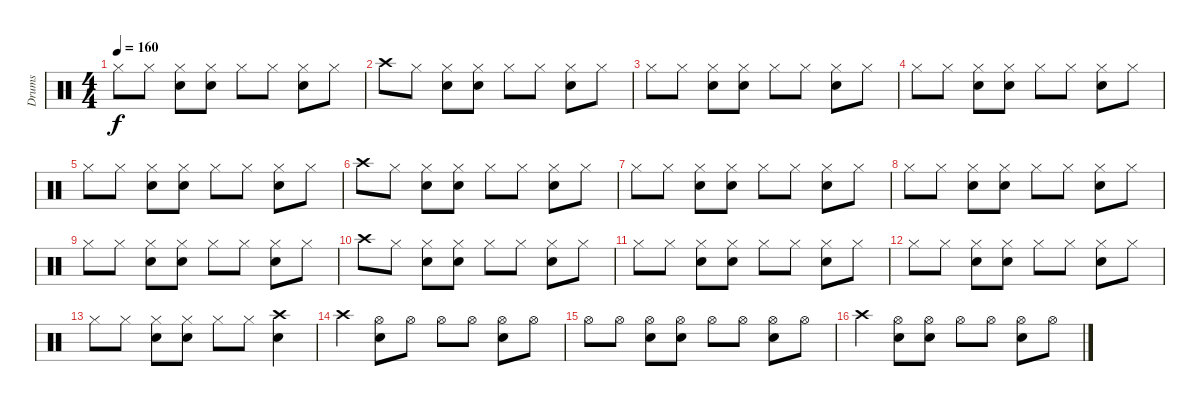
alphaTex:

\track ("Drums" "Drums") {instrument percussion}
\staff {score}
\articulation defaults
\ts (4 4)
\tempo 160
\clef neutral
\ks c "Hi-Hat (closed)".8{dy f} "Hi-Hat (closed)".8
("Hi-Hat (closed)" "Snare (hit) 2").8 ("Hi-Hat (closed)" "Snare (hit) 2").8 "Hi-Hat (closed)".8 "Hi-Hat (closed)".8 ("Hi-Hat (closed)" "Snare (hit) 2").8 "Hi-Hat (closed)".8 |
"Crash high (hit)".8 "Hi-Hat (closed)".8 ("Hi-Hat (closed)" "Snare (hit) 2").8 ("Hi-Hat (closed)" "Snare (hit) 2").8 "Hi-Hat (closed)".8 "Hi-Hat (closed)".8 ("Hi-Hat (closed)" "Snare (hit) 2").8 "Hi-Hat (closed)".8 |
"Hi-Hat (closed)".8 "Hi-Hat (closed)".8 ("Hi-Hat (closed)" "Snare (hit) 2").8 ("Hi-Hat (closed)" "Snare (hit) 2").8 "Hi-Hat (closed)".8 "Hi-Hat (closed)".8 ("Hi-Hat (closed)" "Snare (hit) 2").8 "Hi-Hat (closed)".8 |
"Hi-Hat (closed)".8 "Hi-Hat (closed)".8 ("Hi-Hat (closed)" "Snare (hit) 2").8 ("Hi-Hat (closed)" "Snare (hit) 2").8 "Hi-Hat (closed)".8 "Hi-Hat (closed)".8 ("Hi-Hat (closed)" "Snare (hit) 2").8 "Hi-Hat (closed)".8 |
"Hi-Hat (closed)".8 "Hi-Hat (closed)".8 ("Hi-Hat (closed)" "Snare (hit) 2").8 ("Hi-Hat (closed)" "Snare (hit) 2").8 "Hi-Hat (closed)".8 "Hi-Hat (closed)".8 ("Hi-Hat (closed)" "Snare (hit) 2").8 "Hi-Hat (closed)".8 |
"Crash high (hit)".8 "Hi-Hat (closed)".8 ("Hi-Hat (closed)" "Snare (hit) 2").8 ("Hi-Hat (closed)" "Snare (hit) 2").8 "Hi-Hat (closed)".8 "Hi-Hat (closed)".8 ("Hi-Hat (closed)" "Snare (hit) 2").8 "Hi-Hat (closed)".8 |
"Hi-Hat (closed)".8 "Hi-Hat (closed)".8 ("Hi-Hat (closed)" "Snare (hit) 2").8 ("Hi-Hat (closed)" "Snare (hit) 2").8 "Hi-Hat (closed)".8 "Hi-Hat (closed)".8 ("Hi-Hat (closed)" "Snare (hit) 2").8 "Hi-Hat (closed)".8 |
"Hi-Hat (closed)".8 "Hi-Hat (closed)".8 ("Hi-Hat (closed)" "Snare (hit) 2").8 ("Hi-Hat (closed)" "Snare (hit) 2").8 "Hi-Hat (closed)".8 "Hi-Hat (closed)".8 ("Hi-Hat (closed)" "Snare (hit) 2").8 "Hi-Hat (closed)".8 |
"Hi-Hat (closed)".8 "Hi-Hat (closed)".8 ("Hi-Hat (closed)" "Snare (hit) 2").8 ("Hi-Hat (closed)" "Snare (hit) 2").8 "Hi-Hat (closed)".8 "Hi-Hat (closed)".8 ("Hi-Hat (closed)" "Snare (hit) 2").8 "Hi-Hat (closed)".8 |
"Crash high (hit)".8 "Hi-Hat (closed)".8 ("Hi-Hat (closed)" "Snare (hit) 2").8 ("Hi-Hat (closed)" "Snare (hit) 2").8 "Hi-Hat (closed)".8 "Hi-Hat (closed)".8 ("Hi-Hat (closed)" "Snare (hit) 2").8 "Hi-Hat (closed)".8 |
"Hi-Hat (closed)".8 "Hi-Hat (closed)".8 ("Hi-Hat (closed)" "Snare (hit) 2").8 ("Hi-Hat (closed)" "Snare (hit) 2").8 "Hi-Hat (closed)".8 "Hi-Hat (closed)".8 ("Hi-Hat (closed)" "Snare (hit) 2").8 "Hi-Hat (closed)".8 |
"Hi-Hat (closed)".8 "Hi-Hat (closed)".8 ("Hi-Hat (closed)" "Snare (hit) 2").8 ("Hi-Hat (closed)" "Snare (hit) 2").8 "Hi-Hat (closed)".8 "Hi-Hat (closed)".8 ("Hi-Hat (closed)" "Snare (hit) 2").8 "Hi-Hat (closed)".8 |
"Hi-Hat (closed)".8 "Hi-Hat (closed)".8 ("Hi-Hat (closed)" "Snare (hit) 2").8 ("Hi-Hat (closed)" "Snare (hit) 2").8 "Hi-Hat (closed)".8 "Hi-Hat (closed)".8 ("Crash high (hit)" "Snare (hit) 2").4 |
"Crash high (hit)".4 ("Hi-Hat (open)" "Snare (hit) 2").8 "Hi-Hat (open)".8 "Hi-Hat (open)".8 "Hi-Hat (open)".8 ("Hi-Hat (open)" "Snare (hit) 2").8 "Hi-Hat (open)".8 |
"Hi-Hat (open)".8 "Hi-Hat (open)".8 ("Hi-Hat (open)" "Snare (hit) 2").8 ("Hi-Hat (open)" "Snare (hit) 2").8 "Hi-Hat (open)".8 "Hi-Hat (open)".8 ("Hi-Hat (open)" "Snare (hit) 2").8 "Hi-Hat (open)".8 |
"Crash high (hit)".4 ("Hi-Hat (open)" "Snare (hit) 2").8 ("Hi-Hat (open)" "Snare (hit) 2").8 "Hi-Hat (open)".8 "Hi-Hat (open)".8 ("Hi-Hat (open)" "Snare (hit) 2").8 "Hi-Hat (open)".8
